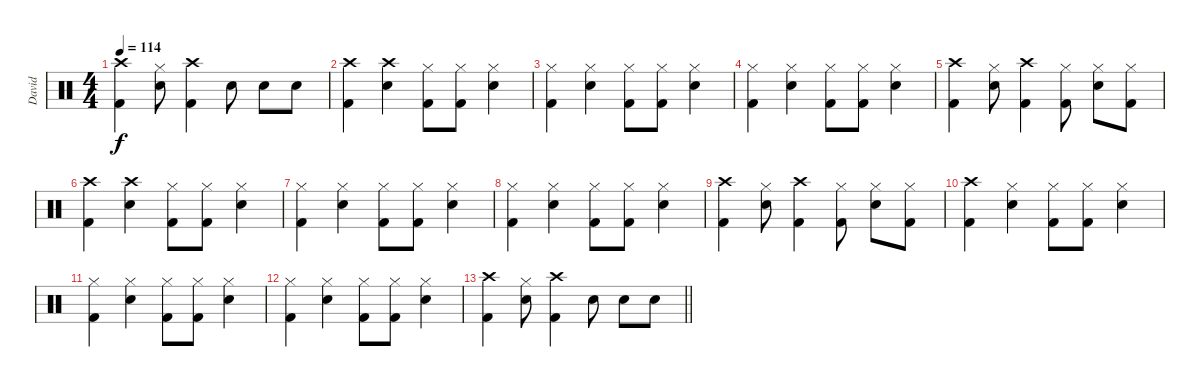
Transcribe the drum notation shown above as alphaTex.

\track ("David" "David") {instrument percussion}
\staff {score}
\articulation defaults
\ts (4 4)
\tempo 114
\clef neutral
\ks c
("Crash high (hit)" "Kick (hit) 2").4{dy f} ("Hi-Hat (closed)" "Snare (hit) 2").8 ("Crash high (hit)" "Kick (hit) 2").4 "Snare (hit) 2".8 "Snare (hit) 2".8 "Snare (hit) 2".8 |
("Crash high (hit)" "Kick (hit) 2").4 ("Crash high (hit)" "Snare (hit) 2").4 ("Hi-Hat (closed)" "Kick (hit) 2").8 ("Hi-Hat (closed)" "Kick (hit) 2").8 ("Hi-Hat (closed)" "Snare (hit) 2").4 |
("Hi-Hat (closed)" "Kick (hit) 2").4 ("Hi-Hat (closed)" "Snare (hit) 2").4 ("Hi-Hat (closed)" "Kick (hit) 2").8 ("Hi-Hat (closed)" "Kick (hit) 2").8 ("Hi-Hat (closed)" "Snare (hit) 2").4 |
("Hi-Hat (closed)" "Kick (hit) 2").4 ("Hi-Hat (closed)" "Snare (hit) 2").4 ("Hi-Hat (closed)" "Kick (hit) 2").8 ("Hi-Hat (closed)" "Kick (hit) 2").8 ("Hi-Hat (closed)" "Snare (hit) 2").4 |
("Crash high (hit)" "Kick (hit) 2").4 ("Hi-Hat (closed)" "Snare (hit) 2").8 ("Crash high (hit)" "Kick (hit) 2").4 ("Hi-Hat (closed)" "Kick (hit) 2").8 ("Hi-Hat (closed)" "Snare (hit) 2").8 ("Hi-Hat (closed)" "Kick (hit) 2").8 |
("Crash high (hit)" "Kick (hit) 2").4 ("Crash high (hit)" "Snare (hit) 2").4 ("Hi-Hat (closed)" "Kick (hit) 2").8 ("Hi-Hat (closed)" "Kick (hit) 2").8 ("Hi-Hat (closed)" "Snare (hit) 2").4 |
("Hi-Hat (closed)" "Kick (hit) 2").4 ("Hi-Hat (closed)" "Snare (hit) 2").4 ("Hi-Hat (closed)" "Kick (hit) 2").8 ("Hi-Hat (closed)" "Kick (hit) 2").8 ("Hi-Hat (closed)" "Snare (hit) 2").4 |
("Hi-Hat (closed)" "Kick (hit) 2").4 ("Hi-Hat (closed)" "Snare (hit) 2").4 ("Hi-Hat (closed)" "Kick (hit) 2").8 ("Hi-Hat (closed)" "Kick (hit) 2").8 ("Hi-Hat (closed)" "Snare (hit) 2").4 |
("Crash high (hit)" "Kick (hit) 2").4{volume 2} ("Hi-Hat (closed)" "Snare (hit) 2").8 ("Crash high (hit)" "Kick (hit) 2").4 ("Hi-Hat (closed)" "Kick (hit) 2").8 ("Hi-Hat (closed)" "Snare (hit) 2").8 ("Hi-Hat (closed)" "Kick (hit) 2").8 |
("Crash high (hit)" "Kick (hit) 2").4 ("Hi-Hat (closed)" "Snare (hit) 2").4 ("Hi-Hat (closed)" "Kick (hit) 2").8 ("Hi-Hat (closed)" "Kick (hit) 2").8 ("Hi-Hat (closed)" "Snare (hit) 2").4 |
("Hi-Hat (closed)" "Kick (hit) 2").4 ("Hi-Hat (closed)" "Snare (hit) 2").4 ("Hi-Hat (closed)" "Kick (hit) 2").8 ("Hi-Hat (closed)" "Kick (hit) 2").8 ("Hi-Hat (closed)" "Snare (hit) 2").4 |
("Hi-Hat (closed)" "Kick (hit) 2").4 ("Hi-Hat (closed)" "Snare (hit) 2").4 ("Hi-Hat (closed)" "Kick (hit) 2").8 ("Hi-Hat (closed)" "Kick (hit) 2").8 ("Hi-Hat (closed)" "Snare (hit) 2").4 |
\barLineRight lightlight
("Crash high (hit)" "Kick (hit) 2").4 ("Hi-Hat (closed)" "Snare (hit) 2").8 ("Crash high (hit)" "Kick (hit) 2").4 "Snare (hit) 2".8 "Snare (hit) 2".8 "Snare (hit) 2".8
